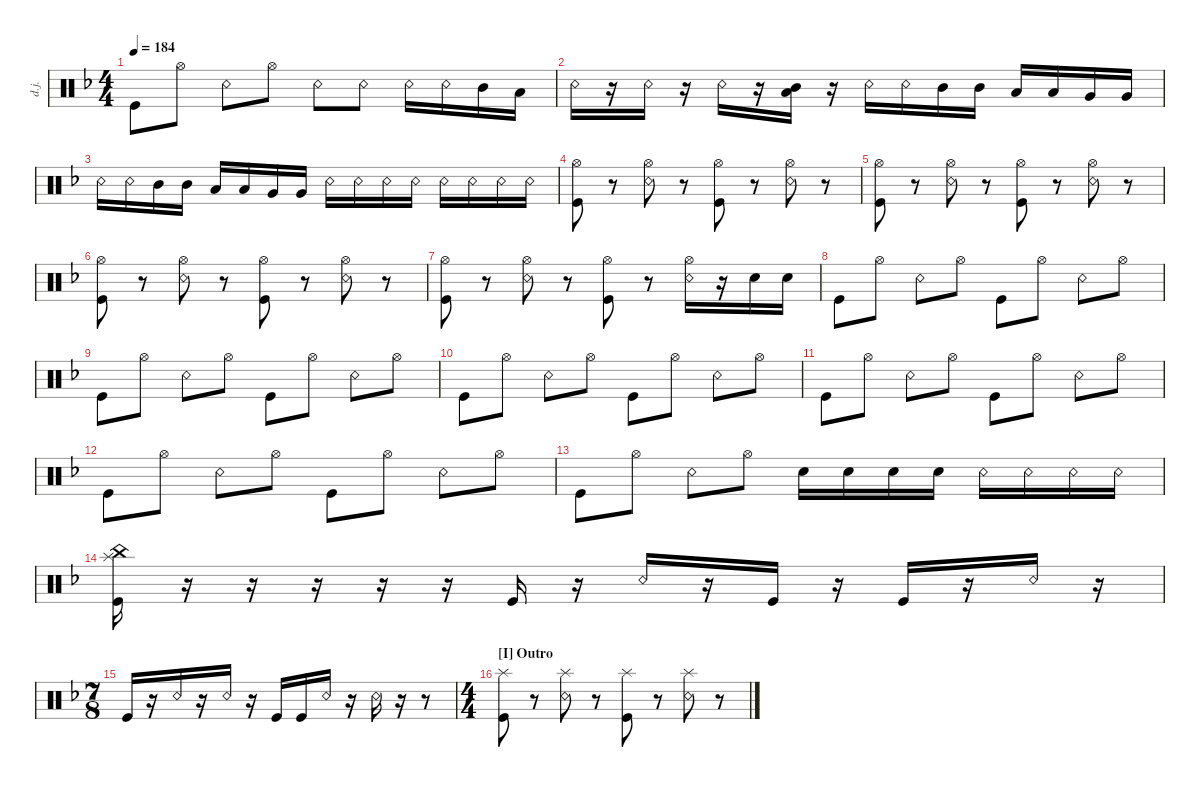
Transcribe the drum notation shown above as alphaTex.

\defaultSystemsLayout 4
\hideDynamics
\bracketExtendMode nobrackets
\otherSystemsTrackNameOrientation horizontal
\track ("Drumkit Jason" "d.j.") {instrument percussion}
\staff {score}
\articulation defaults
\ts (4 4)
\tempo 184
\clef neutral
\ks dminor "Kick (hit)".8{dy ff} "Hi-Hat (open)".8 "Snare (rim shot)".8 "Hi-Hat (open)".8 "Snare (rim shot)".8 "Snare (rim shot)".8 "Snare (rim shot)".16 "Snare (rim shot)".16 "Mid Tom (hit)".16 "Low Tom (hit)".16
|
"Snare (rim shot)".16 r.16 "Snare (rim shot)".16 r.16 "Snare (rim shot)".16 r.16 ("Mid Tom (hit)" "Low Tom (hit)").16 r.16 "Snare (rim shot)".16 "Snare (rim shot)".16 "Mid Tom (hit)".16 "Mid Tom (hit)".16 "Low Tom (hit)".16 "Low Tom (hit)".16 "Very Low Tom (hit)".16 "Very Low Tom (hit)".16 |
"Snare (rim shot)".16 "Snare (rim shot)".16 "Mid Tom (hit)".16 "Mid Tom (hit)".16 "Low Tom (hit)".16 "Low Tom (hit)".16 "Very Low Tom (hit)".16 "Very Low Tom (hit)".16 "Snare (rim shot)".16 "Snare (rim shot)".16 "Snare (rim shot)".16 "Snare (rim shot)".16 "Snare (rim shot)".16 "Snare (rim shot)".16 "Snare (rim shot)".16 "Snare (rim shot)".16 |
("Hi-Hat (open)" "Kick (hit)").8 r.8 ("Hi-Hat (open)" "Snare (rim shot)").8 r.8 ("Hi-Hat (open)" "Kick (hit)").8 r.8 ("Hi-Hat (open)" "Snare (rim shot)").8 r.8 |
("Hi-Hat (open)" "Kick (hit)").8 r.8 ("Hi-Hat (open)" "Snare (rim shot)").8 r.8 ("Hi-Hat (open)" "Kick (hit)").8 r.8 ("Hi-Hat (open)" "Snare (rim shot)").8 r.8 |
("Hi-Hat (open)" "Kick (hit)").8 r.8 ("Hi-Hat (open)" "Snare (rim shot)").8 r.8 ("Hi-Hat (open)" "Kick (hit)").8 r.8 ("Hi-Hat (open)" "Snare (rim shot)").8 r.8 |
("Hi-Hat (open)" "Kick (hit)").8 r.8 ("Hi-Hat (open)" "Snare (rim shot)").8 r.8 ("Hi-Hat (open)" "Kick (hit)").8 r.8 ("Hi-Hat (open)" "Snare (rim shot)").16 r.16 "Snare (hit) 2".16 "Snare (hit) 2".16 |
"Kick (hit)".8 "Hi-Hat (open)".8 "Snare (rim shot)".8 "Hi-Hat (open)".8 "Kick (hit)".8 "Hi-Hat (open)".8 "Snare (rim shot)".8 "Hi-Hat (open)".8 |
"Kick (hit)".8 "Hi-Hat (open)".8 "Snare (rim shot)".8 "Hi-Hat (open)".8 "Kick (hit)".8 "Hi-Hat (open)".8 "Snare (rim shot)".8 "Hi-Hat (open)".8 |
"Kick (hit)".8 "Hi-Hat (open)".8 "Snare (rim shot)".8 "Hi-Hat (open)".8 "Kick (hit)".8 "Hi-Hat (open)".8 "Snare (rim shot)".8 "Hi-Hat (open)".8 |
"Kick (hit)".8 "Hi-Hat (open)".8 "Snare (rim shot)".8 "Hi-Hat (open)".8 "Kick (hit)".8 "Hi-Hat (open)".8 "Snare (rim shot)".8 "Hi-Hat (open)".8 |
"Kick (hit)".8 "Hi-Hat (open)".8 "Snare (rim shot)".8 "Hi-Hat (open)".8 "Kick (hit)".8 "Hi-Hat (open)".8 "Snare (rim shot)".8 "Hi-Hat (open)".8 |
"Kick (hit)".8 "Hi-Hat (open)".8 "Snare (rim shot)".8 "Hi-Hat (open)".8 "Snare (hit) 2".16 "Snare (hit) 2".16 "Snare (hit) 2".16 "Snare (hit) 2".16 "Snare (rim shot)".16 "Snare (rim shot)".16 "Snare (rim shot)".16 "Snare (rim shot)".16 |
("Splash (hit)" "China (hit)" "Kick (hit)").16 r.16 r.16 r.16 r.16 r.16 "Kick (hit)".16 r.16 "Snare (rim shot)".16 r.16 "Kick (hit)".16 r.16 "Kick (hit)".16 r.16 "Snare (rim shot)".16 r.16 |
\ts (7 8)
\beaming (8 3 2 2)
"Kick (hit)".16 r.16 "Snare (rim shot)".16 r.16 "Snare (rim shot)".16 r.16 "Kick (hit)".16 "Kick (hit)".16 "Snare (rim shot)".16 r.16 "Snare (rim shot)".16 r.16 r.8 |
\ts (4 4)
\beaming (8 2 2 2 2)
\section ("I" "Outro")
("Kick (hit)" "Splash (hit)").8 r.8 ("Snare (rim shot)" "Splash (hit)").8 r.8 ("Kick (hit)" "Splash (hit)").8 r.8 ("Splash (hit)" "Snare (rim shot)").8 r.8
